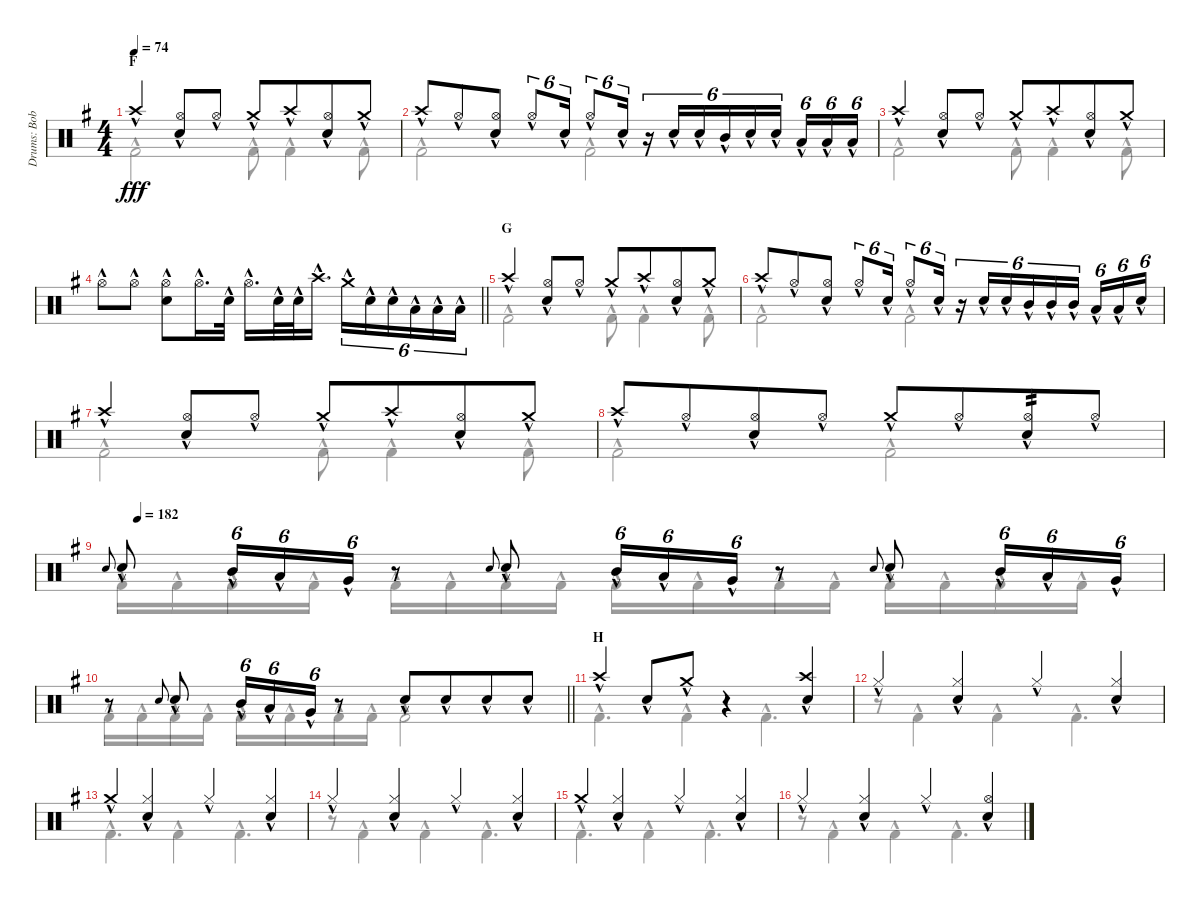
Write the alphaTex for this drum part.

\track ("Drums: Bobby" "Drums: Bob") {instrument percussion}
\staff {score}
\articulation defaults
\voice
\ts (4 4)
\section ("" "F")
\tempo 74
\clef neutral
\ks g "Crash high (hit)"{hac}.4{dy fff}
("Hi-Hat (open)"{hac} "Snare (hit) 2"{hac}).8 "Hi-Hat (open)"{hac}.8 "Crash medium (hit)"{hac}.8 "Crash high (hit)"{hac}.8{beam merge} ("Hi-Hat (open)"{hac} "Snare (hit) 2"{hac}).8 "Crash medium (hit)"{hac}.8 |
"Crash high (hit)"{hac}.8 "Hi-Hat (open)"{hac}.8{beam merge} ("Hi-Hat (open)"{hac} "Snare (hit) 2"{hac}).8 "Hi-Hat (open)"{hac}.8{tu (6 4)} "Snare (hit) 2"{hac}.16{tu (6 4)} "Hi-Hat (open)"{hac}.8{tu (6 4)} "Snare (hit) 2"{hac}.16{tu (6 4)} r.16{tu (6 4)} "Snare (hit) 2"{hac}.16{tu (6 4)} "Snare (hit) 2"{hac}.16{tu (6 4)} "Mid Tom (hit)"{hac}.16{tu (6 4)} "Electric Snare (hit)"{hac}.16{tu (6 4)} "Electric Snare (hit)"{hac}.16{tu (6 4) beam splitsecondary} "Low Tom (hit)"{hac}.16{tu (6 4)} "Low Tom (hit)"{hac}.16{tu (6 4)} "Low Tom (hit)"{hac}.16{tu (6 4)} |
"Crash high (hit)"{hac}.4 ("Hi-Hat (open)"{hac} "Snare (hit) 2"{hac}).8 "Hi-Hat (open)"{hac}.8 "Crash medium (hit)"{hac}.8 "Crash high (hit)"{hac}.8{beam merge} ("Hi-Hat (open)"{hac} "Snare (hit) 2"{hac}).8 "Crash medium (hit)"{hac}.8 |
\barLineRight lightlight "Hi-Hat (open)"{hac}.8 "Hi-Hat (open)"{hac}.8
("Hi-Hat (open)"{hac} "Snare (hit) 2"{hac}).8 "Hi-Hat (open)"{hac}.16{d} "Electric Snare (hit)"{hac}.32 "Hi-Hat (open)"{hac}.16{d} "Electric Snare (hit)"{hac}.32 "Electric Snare (hit)"{hac}.32 "Crash high (hit)"{hac}.16{d} "Crash medium (hit)"{hac}.16{tu (6 4)} "Electric Snare (hit)"{hac}.16{tu (6 4)} "Electric Snare (hit)"{hac}.16{tu (6 4)} "Low Tom (hit)"{hac}.16{tu (6 4)} "Low Tom (hit)"{hac}.16{tu (6 4)} "Low Tom (hit)"{hac}.16{tu (6 4)} |
\section ("" "G")
"Crash high (hit)"{hac}.4 ("Hi-Hat (open)"{hac} "Snare (hit) 2"{hac}).8 "Hi-Hat (open)"{hac}.8 "Crash medium (hit)"{hac}.8 "Crash high (hit)"{hac}.8{beam merge} ("Hi-Hat (open)"{hac} "Snare (hit) 2"{hac}).8 "Crash medium (hit)"{hac}.8 |
"Crash high (hit)"{hac}.8 "Hi-Hat (open)"{hac}.8{beam merge} ("Hi-Hat (open)"{hac} "Snare (hit) 2"{hac}).8 "Hi-Hat (open)"{hac}.8{tu (6 4)} "Snare (hit) 2"{hac}.16{tu (6 4)} "Hi-Hat (open)"{hac}.8{tu (6 4)} "Snare (hit) 2"{hac}.16{tu (6 4)} r.16{tu (6 4)} "Snare (hit) 2"{hac}.16{tu (6 4)} "Snare (hit) 2"{hac}.16{tu (6 4)} "Mid Tom (hit)"{hac}.16{tu (6 4)} "Mid Tom (hit)"{hac}.16{tu (6 4)} "Mid Tom (hit)"{hac}.16{tu (6 4) beam splitsecondary} "Low Tom (hit)"{hac}.16{tu (6 4)} "Low Tom (hit)"{hac}.16{tu (6 4)} "Electric Snare (hit)"{hac}.16{tu (6 4)} |
"Crash high (hit)"{hac}.4 ("Hi-Hat (open)"{hac} "Snare (hit) 2"{hac}).8 "Hi-Hat (open)"{hac}.8 "Crash medium (hit)"{hac}.8 "Crash high (hit)"{hac}.8{beam merge} ("Hi-Hat (open)"{hac} "Snare (hit) 2"{hac}).8 "Crash medium (hit)"{hac}.8 |
"Crash high (hit)"{hac}.8 "Hi-Hat (open)"{hac}.8{beam merge} ("Hi-Hat (open)"{hac} "Snare (hit) 2"{hac}).8 "Hi-Hat (open)"{hac}.8 "Crash medium (hit)"{hac}.8 "Hi-Hat (open)"{hac}.8{beam merge} ("Hi-Hat (open)"{hac} "Electric Snare (hit)"{hac}).8{tp 2} "Hi-Hat (open)"{hac}.8 |
\tempo (182 0.03125)
"Electric Snare (hit)".8{gr onbeat} "Snare (hit) 2"{hac}.8 "Mid Tom (hit)"{hac}.16{tu (6 4)} "Low Tom (hit)"{hac}.16{tu (6 4)} "Very Low Tom (hit)"{hac}.16{tu (6 4)} r.8 "Electric Snare (hit)".8{gr onbeat} "Snare (hit) 2"{hac}.8 "Mid Tom (hit)"{hac}.16{tu (6 4)} "Low Tom (hit)"{hac}.16{tu (6 4)} "Very Low Tom (hit)"{hac}.16{tu (6 4)} r.8 "Electric Snare (hit)".8{gr onbeat} "Snare (hit) 2"{hac}.8 "Mid Tom (hit)"{hac}.16{tu (6 4)} "Low Tom (hit)"{hac}.16{tu (6 4)} "Very Low Tom (hit)"{hac}.16{tu (6 4)} |
\barLineRight lightlight
r.8 "Electric Snare (hit)".8{gr onbeat} "Snare (hit) 2"{hac}.8 "Mid Tom (hit)"{hac}.16{tu (6 4)} "Low Tom (hit)"{hac}.16{tu (6 4)} "Very Low Tom (hit)"{hac}.16{tu (6 4)} r.8 "Snare (hit) 2"{hac}.8 "Snare (hit) 2"{hac}.8{beam merge} "Snare (hit) 2"{hac}.8 "Snare (hit) 2"{hac}.8 |
\section ("" "H")
"Crash high (hit)"{hac}.4 "Snare (hit) 2"{hac}.8 "Crash medium (hit)"{hac}.8 r.4 ("Crash high (hit)"{hac} "Snare (hit) 2"{hac}).4 |
"Hi-Hat (closed)"{hac}.4 ("Hi-Hat (closed)"{hac} "Snare (hit) 2"{hac}).4 "Hi-Hat (closed)"{hac}.4 ("Hi-Hat (closed)"{hac} "Snare (hit) 2"{hac}).4 |
"Crash medium (hit)"{hac}.4 ("Hi-Hat (closed)"{hac} "Snare (hit) 2"{hac}).4 "Hi-Hat (closed)"{hac}.4 ("Hi-Hat (closed)"{hac} "Snare (hit) 2"{hac}).4 |
"Hi-Hat (closed)"{hac}.4 ("Hi-Hat (closed)"{hac} "Snare (hit) 2"{hac}).4 "Hi-Hat (closed)"{hac}.4 ("Hi-Hat (closed)"{hac} "Snare (hit) 2"{hac}).4 |
"Crash medium (hit)"{hac}.4 ("Hi-Hat (closed)"{hac} "Snare (hit) 2"{hac}).4 "Hi-Hat (closed)"{hac}.4 ("Hi-Hat (closed)"{hac} "Snare (hit) 2"{hac}).4 |
"Hi-Hat (closed)"{hac}.4 ("Hi-Hat (closed)"{hac} "Snare (hit) 2"{hac}).4 "Hi-Hat (closed)"{hac}.4 ("Hi-Hat (open)"{hac} "Snare (hit) 2"{hac}).4
\voice
\clef neutral
\ottava regular
\simile none
\ks g "Kick (hit) 2"{hac}.2{dy fff} "Kick (hit) 2"{hac}.8 "Kick (hit) 2"{hac}.4 "Kick (hit) 2"{hac}.8
|
"Kick (hit) 2"{hac}.2 "Kick (hit) 2"{hac}.2 |
"Kick (hit) 2"{hac}.2 "Kick (hit) 2"{hac}.8 "Kick (hit) 2"{hac}.4 "Kick (hit) 2"{hac}.8 |
\barLineRight lightlight
|
"Kick (hit) 2"{hac}.2 "Kick (hit) 2"{hac}.8 "Kick (hit) 2"{hac}.4 "Kick (hit) 2"{hac}.8 |
"Kick (hit) 2"{hac}.2 "Kick (hit) 2"{hac}.2 |
"Kick (hit) 2"{hac}.2 "Kick (hit) 2"{hac}.8 "Kick (hit) 2"{hac}.4 "Kick (hit) 2"{hac}.8 |
"Kick (hit) 2"{hac}.2 "Kick (hit) 2"{hac}.2 |
"Kick (hit) 2"{hac}.16 "Kick (hit) 2"{hac}.16 "Kick (hit) 2"{hac}.16 "Kick (hit) 2"{hac}.16 "Kick (hit) 2"{hac}.16 "Kick (hit) 2"{hac}.16 "Kick (hit) 2"{hac}.16 "Kick (hit) 2"{hac}.16 "Kick (hit) 2"{hac}.16 "Kick (hit) 2"{hac}.16 "Kick (hit) 2"{hac}.16 "Kick (hit) 2"{hac}.16 "Kick (hit) 2"{hac}.16 "Kick (hit) 2"{hac}.16 "Kick (hit) 2"{hac}.16 "Kick (hit) 2"{hac}.16 |
\barLineRight lightlight "Kick (hit) 2"{hac}.16 "Kick (hit) 2"{hac}.16 "Kick (hit) 2"{hac}.16 "Kick (hit) 2"{hac}.16 "Kick (hit) 2"{hac}.16 "Kick (hit) 2"{hac}.16 "Kick (hit) 2"{hac}.16 "Kick (hit) 2"{hac}.16 "Kick (hit) 2"{hac}.2
|
"Kick (hit) 2"{hac}.4{d} "Kick (hit) 2"{hac}.4 "Kick (hit) 2"{hac}.4{d} |
r.8 "Kick (hit) 2"{hac}.4 "Kick (hit) 2"{hac}.4 "Kick (hit) 2"{hac}.4{d} |
"Kick (hit) 2"{hac}.4{d} "Kick (hit) 2"{hac}.4 "Kick (hit) 2"{hac}.4{d} |
r.8 "Kick (hit) 2"{hac}.4 "Kick (hit) 2"{hac}.4 "Kick (hit) 2"{hac}.4{d} |
"Kick (hit) 2"{hac}.4{d} "Kick (hit) 2"{hac}.4 "Kick (hit) 2"{hac}.4{d} |
r.8 "Kick (hit) 2"{hac}.4 "Kick (hit) 2"{hac}.4 "Kick (hit) 2"{hac}.4{d}
